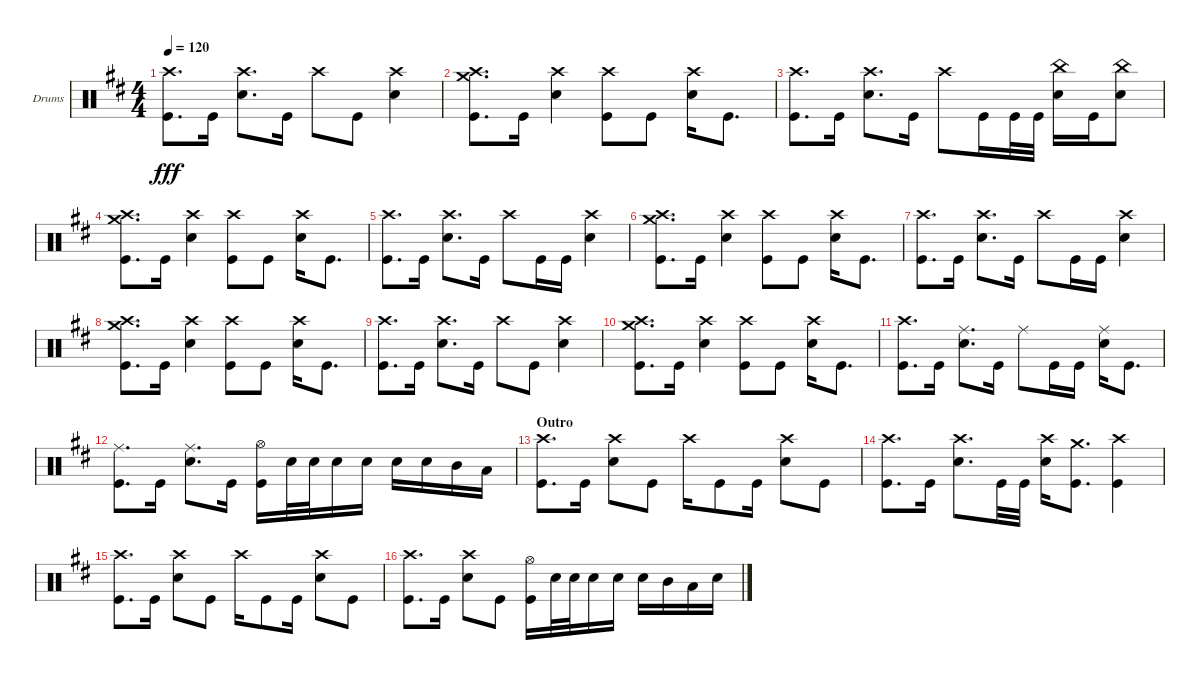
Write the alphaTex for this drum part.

\defaultSystemsLayout 4
\bracketExtendMode groupsimilarinstruments
\firstSystemTrackNameOrientation horizontal
\otherSystemsTrackNameOrientation horizontal
\track ("Garrett" "Drums") {instrument percussion}
\staff {score}
\articulation defaults
\ts (4 4)
\tempo 120
\clef neutral
\ks bminor
("Crash high (hit)" "Kick (hit)").8{d dy fff} "Kick (hit)".16 ("Snare (hit) 2" "Crash high (hit)").8{d} "Kick (hit)".16 "Crash high (hit)".8 "Kick (hit)".8 ("Snare (hit) 2" "Crash high (hit)").4 |
("Crash high (hit)" "Kick (hit)" "Crash medium (hit)").8{d} "Kick (hit)".16 ("Snare (hit) 2" "Crash high (hit)").4 ("Crash high (hit)" "Kick (hit)").8 "Kick (hit)".8 ("Snare (hit) 2" "Crash high (hit)").16 "Kick (hit)".8{d} |
("Crash high (hit)" "Kick (hit)").8{d} "Kick (hit)".16 ("Snare (hit) 2" "Crash high (hit)").8{d} "Kick (hit)".16 "Crash high (hit)".8 "Kick (hit)".16 "Kick (hit)".32 "Kick (hit)".32 ("Snare (hit) 2" "China (hit)").16 "Kick (hit)".16 ("Snare (hit) 2" "China (hit)").8 |
("Crash high (hit)" "Kick (hit)" "Crash medium (hit)").8{d} "Kick (hit)".16 ("Snare (hit) 2" "Crash high (hit)").4 ("Crash high (hit)" "Kick (hit)").8 "Kick (hit)".8 ("Snare (hit) 2" "Crash high (hit)").16 "Kick (hit)".8{d} |
("Crash high (hit)" "Kick (hit)").8{d} "Kick (hit)".16 ("Snare (hit) 2" "Crash high (hit)").8{d} "Kick (hit)".16 "Crash high (hit)".8 "Kick (hit)".16 "Kick (hit)".16 ("Snare (hit) 2" "Crash high (hit)").4 |
("Crash high (hit)" "Kick (hit)" "Crash medium (hit)").8{d} "Kick (hit)".16 ("Snare (hit) 2" "Crash high (hit)").4 ("Crash high (hit)" "Kick (hit)").8 "Kick (hit)".8 ("Snare (hit) 2" "Crash high (hit)").16 "Kick (hit)".8{d} |
("Crash high (hit)" "Kick (hit)").8{d} "Kick (hit)".16 ("Snare (hit) 2" "Crash high (hit)").8{d} "Kick (hit)".16 "Crash high (hit)".8 "Kick (hit)".16 "Kick (hit)".16 ("Snare (hit) 2" "Crash high (hit)").4 |
("Crash high (hit)" "Kick (hit)" "Crash medium (hit)").8{d} "Kick (hit)".16 ("Snare (hit) 2" "Crash high (hit)").4 ("Crash high (hit)" "Kick (hit)").8 "Kick (hit)".8 ("Snare (hit) 2" "Crash high (hit)").16 "Kick (hit)".8{d} |
("Crash high (hit)" "Kick (hit)").8{d} "Kick (hit)".16 ("Snare (hit) 2" "Crash high (hit)").8{d} "Kick (hit)".16 "Crash high (hit)".8 "Kick (hit)".8 ("Snare (hit) 2" "Crash high (hit)").4 |
("Crash high (hit)" "Kick (hit)" "Crash medium (hit)").8{d} "Kick (hit)".16 ("Snare (hit) 2" "Crash high (hit)").4 ("Crash high (hit)" "Kick (hit)").8 "Kick (hit)".8 ("Snare (hit) 2" "Crash high (hit)").16 "Kick (hit)".8{d} |
("Crash high (hit)" "Kick (hit)").8{d} "Kick (hit)".16 ("Snare (hit) 2" "Ride (middle)").8{d} "Kick (hit)".16 "Ride (middle)".8 "Kick (hit)".16 "Kick (hit)".16 ("Snare (hit) 2" "Ride (middle)").16 "Kick (hit)".8{d} |
("Kick (hit)" "Ride (middle)").8{d} "Kick (hit)".16 ("Snare (hit) 2" "Ride (middle)").8{d} "Kick (hit)".16 ("Kick (hit)" "Hi-Hat (open)").16 "Snare (hit) 2".32 "Snare (hit) 2".32 "Snare (hit) 2".16 "Snare (hit) 2".16 "Snare (hit) 2".16 "Snare (hit) 2".16 "Mid Tom (hit)".16 "Low Tom (hit)".16 |
\section ("" "Outro")
("Crash high (hit)" "Kick (hit)").8{d} "Kick (hit)".16 ("Snare (hit) 2" "Crash high (hit)").8 "Kick (hit)".8 "Crash high (hit)".16 "Kick (hit)".8 "Kick (hit)".16 ("Snare (hit) 2" "Crash high (hit)").8 "Kick (hit)".8 |
("Crash high (hit)" "Kick (hit)").8{d} "Kick (hit)".16 ("Snare (hit) 2" "Crash high (hit)").8{d} "Kick (hit)".32 "Kick (hit)".32 ("Snare (hit) 2" "Crash high (hit)").16 ("Kick (hit)" "Crash medium (hit)").8{d} ("Kick (hit)" "Crash high (hit)").4 |
("Crash high (hit)" "Kick (hit)").8{d} "Kick (hit)".16 ("Snare (hit) 2" "Crash high (hit)").8 "Kick (hit)".8 "Crash high (hit)".16 "Kick (hit)".8 "Kick (hit)".16 ("Snare (hit) 2" "Crash high (hit)").8 "Kick (hit)".8 |
("Crash high (hit)" "Kick (hit)").8{d} "Kick (hit)".16 ("Snare (hit) 2" "Crash high (hit)").8 "Kick (hit)".8 ("Kick (hit)" "Hi-Hat (open)").16 "Snare (hit) 2".32 "Snare (hit) 2".32 "Snare (hit) 2".16 "Snare (hit) 2".16 "Snare (hit) 2".16 "Mid Tom (hit)".16 "Low Tom (hit)".16 "Snare (hit) 2".16
